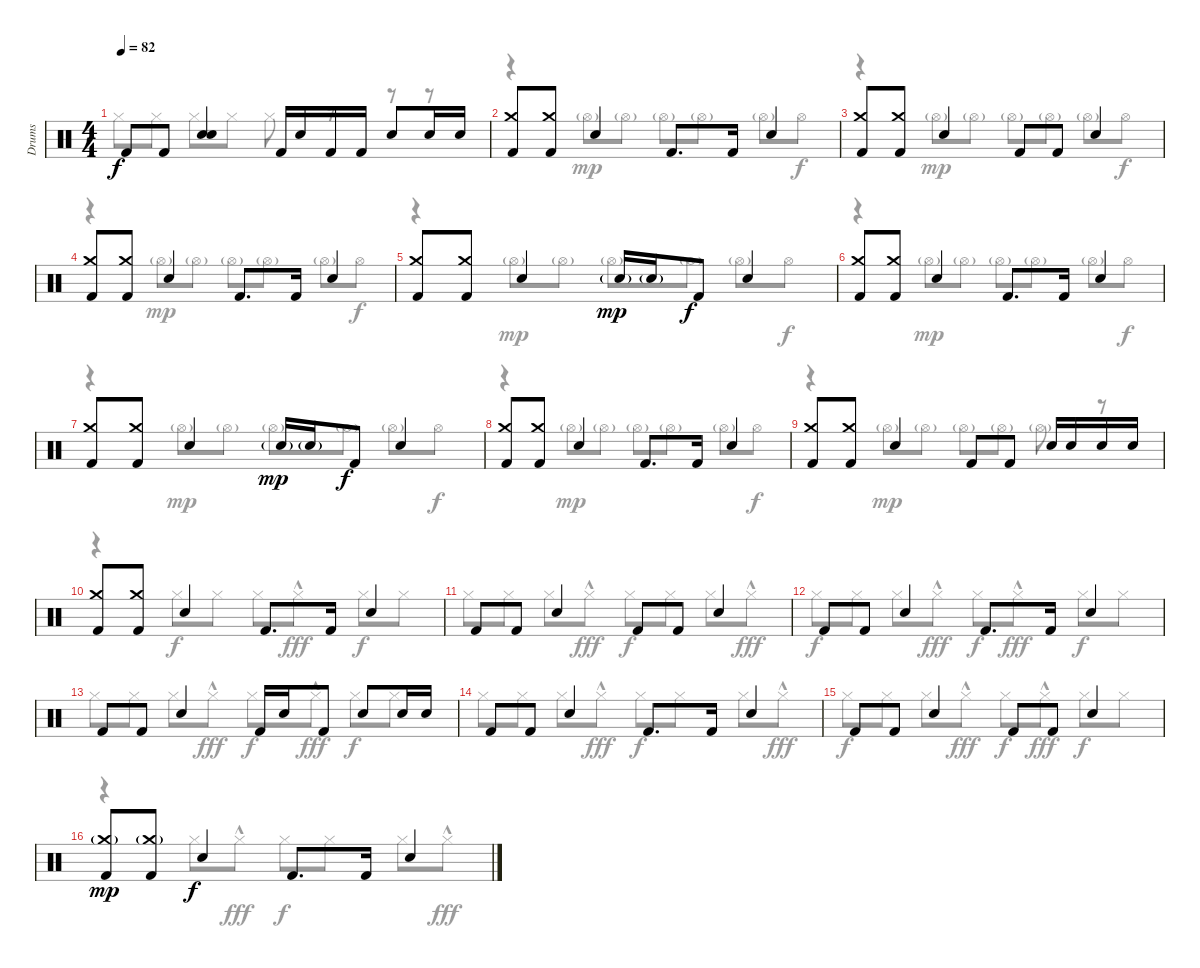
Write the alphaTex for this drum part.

\track ("Drums" "Drums") {instrument percussion}
\staff {score}
\articulation defaults
\voice
\ts (4 4)
\tempo 82
\clef neutral
\ks c "Kick (hit) 2".8{dy f} "Kick (hit) 2".8
("Snare (hit) 2" "Snare (hit) 2").4 "Kick (hit) 2".16 "Snare (hit) 2".16 "Kick (hit) 2".16 "Kick (hit) 2".16 "Snare (hit) 2".8 "Snare (hit) 2".16 "Snare (hit) 2".16 |
("Crash medium (hit)" "Kick (hit) 2").8 ("Crash medium (hit)" "Kick (hit) 2").8 "Snare (hit) 2".4 "Kick (hit) 2".8{d} "Kick (hit) 2".16 "Snare (hit) 2".4 |
("Crash medium (hit)" "Kick (hit) 2").8 ("Crash medium (hit)" "Kick (hit) 2").8 "Snare (hit) 2".4 "Kick (hit) 2".8 "Kick (hit) 2".8 "Snare (hit) 2".4 |
("Crash medium (hit)" "Kick (hit) 2").8 ("Crash medium (hit)" "Kick (hit) 2").8 "Snare (hit) 2".4 "Kick (hit) 2".8{d} "Kick (hit) 2".16 "Snare (hit) 2".4 |
("Crash medium (hit)" "Kick (hit) 2").8 ("Crash medium (hit)" "Kick (hit) 2").8 "Snare (hit) 2".4 "Snare (hit) 2"{g}.16{dy mp} "Snare (hit) 2"{g}.16 "Kick (hit) 2".8{dy f} "Snare (hit) 2".4 |
("Crash medium (hit)" "Kick (hit) 2").8 ("Crash medium (hit)" "Kick (hit) 2").8 "Snare (hit) 2".4 "Kick (hit) 2".8{d} "Kick (hit) 2".16 "Snare (hit) 2".4 |
("Crash medium (hit)" "Kick (hit) 2").8 ("Crash medium (hit)" "Kick (hit) 2").8 "Snare (hit) 2".4 "Snare (hit) 2"{g}.16{dy mp} "Snare (hit) 2"{g}.16 "Kick (hit) 2".8{dy f} "Snare (hit) 2".4 |
("Crash medium (hit)" "Kick (hit) 2").8 ("Crash medium (hit)" "Kick (hit) 2").8 "Snare (hit) 2".4 "Kick (hit) 2".8{d} "Kick (hit) 2".16 "Snare (hit) 2".4 |
("Crash medium (hit)" "Kick (hit) 2").8 ("Crash medium (hit)" "Kick (hit) 2").8 "Snare (hit) 2".4 "Kick (hit) 2".8 "Kick (hit) 2".8 "Snare (hit) 2".16 "Snare (hit) 2".16 "Snare (hit) 2".16 "Snare (hit) 2".16 |
("Crash medium (hit)" "Kick (hit) 2").8 ("Crash medium (hit)" "Kick (hit) 2").8 "Snare (hit) 2".4 "Kick (hit) 2".8{d} "Kick (hit) 2".16 "Snare (hit) 2".4 |
"Kick (hit) 2".8 "Kick (hit) 2".8 "Snare (hit) 2".4 "Kick (hit) 2".8 "Kick (hit) 2".8 "Snare (hit) 2".4 |
"Kick (hit) 2".8 "Kick (hit) 2".8 "Snare (hit) 2".4 "Kick (hit) 2".8{d} "Kick (hit) 2".16 "Snare (hit) 2".4 |
"Kick (hit) 2".8 "Kick (hit) 2".8 "Snare (hit) 2".4 "Kick (hit) 2".16 "Snare (hit) 2".16 "Kick (hit) 2".8 "Snare (hit) 2".8 "Snare (hit) 2".16 "Snare (hit) 2".16 |
"Kick (hit) 2".8 "Kick (hit) 2".8 "Snare (hit) 2".4 "Kick (hit) 2".8{d} "Kick (hit) 2".16 "Snare (hit) 2".4 |
"Kick (hit) 2".8 "Kick (hit) 2".8 "Snare (hit) 2".4 "Kick (hit) 2".8 "Kick (hit) 2".8 "Snare (hit) 2".4 |
("Crash medium (hit)"{g} "Kick (hit) 2").8{dy mp} ("Crash medium (hit)"{g} "Kick (hit) 2").8 "Snare (hit) 2".4{dy f} "Kick (hit) 2".8{d} "Kick (hit) 2".16 "Snare (hit) 2".4
\voice
\clef neutral
\ottava regular
\simile none
\ks c "Hi-Hat (closed)".8{dy f} "Hi-Hat (closed)".8 "Hi-Hat (closed)".8 "Hi-Hat (closed)".8 "Hi-Hat (closed)".8
r.8 r.8 r.8 |
r.4 "Hi-Hat (open)"{g}.8{dy mp} "Hi-Hat (open)"{g}.8 "Hi-Hat (open)"{g}.8 "Hi-Hat (open)"{g}.8 "Hi-Hat (open)"{g}.8 "Hi-Hat (open)".8{dy f} |
r.4 "Hi-Hat (open)"{g}.8{dy mp} "Hi-Hat (open)"{g}.8 "Hi-Hat (open)"{g}.8 "Hi-Hat (open)"{g}.8 "Hi-Hat (open)"{g}.8 "Hi-Hat (open)".8{dy f} |
r.4 "Hi-Hat (open)"{g}.8{dy mp} "Hi-Hat (open)"{g}.8 "Hi-Hat (open)"{g}.8 "Hi-Hat (open)"{g}.8 "Hi-Hat (open)"{g}.8 "Hi-Hat (open)".8{dy f} |
r.4 "Hi-Hat (open)"{g}.8{dy mp} "Hi-Hat (open)"{g}.8 "Hi-Hat (open)"{g}.8 "Hi-Hat (open)"{g}.8 "Hi-Hat (open)"{g}.8 "Hi-Hat (open)".8{dy f} |
r.4 "Hi-Hat (open)"{g}.8{dy mp} "Hi-Hat (open)"{g}.8 "Hi-Hat (open)"{g}.8 "Hi-Hat (open)"{g}.8 "Hi-Hat (open)"{g}.8 "Hi-Hat (open)".8{dy f} |
r.4 "Hi-Hat (open)"{g}.8{dy mp} "Hi-Hat (open)"{g}.8 "Hi-Hat (open)"{g}.8 "Hi-Hat (open)"{g}.8 "Hi-Hat (open)"{g}.8 "Hi-Hat (open)".8{dy f} |
r.4 "Hi-Hat (open)"{g}.8{dy mp} "Hi-Hat (open)"{g}.8 "Hi-Hat (open)"{g}.8 "Hi-Hat (open)"{g}.8 "Hi-Hat (open)"{g}.8 "Hi-Hat (open)".8{dy f} |
r.4 "Hi-Hat (open)"{g}.8{dy mp} "Hi-Hat (open)"{g}.8 "Hi-Hat (open)"{g}.8 "Hi-Hat (open)"{g}.8 "Hi-Hat (open)"{g}.8 r.8 |
r.4 "Hi-Hat (closed)".8{dy f} "Hi-Hat (closed)".8 "Hi-Hat (closed)".8 "Hi-Hat (closed)"{hac}.8{dy fff} "Hi-Hat (closed)".8{dy f} "Hi-Hat (closed)".8 |
"Hi-Hat (closed)".8 "Hi-Hat (closed)".8 "Hi-Hat (closed)".8 "Hi-Hat (closed)"{hac}.8{dy fff} "Hi-Hat (closed)".8{dy f} "Hi-Hat (closed)".8 "Hi-Hat (closed)".8 "Hi-Hat (closed)"{hac}.8{dy fff} |
"Hi-Hat (closed)".8{dy f} "Hi-Hat (closed)".8 "Hi-Hat (closed)".8 "Hi-Hat (closed)"{hac}.8{dy fff} "Hi-Hat (closed)".8{dy f} "Hi-Hat (closed)"{hac}.8{dy fff} "Hi-Hat (closed)".8{dy f} "Hi-Hat (closed)".8 |
"Hi-Hat (closed)".8 "Hi-Hat (closed)".8 "Hi-Hat (closed)".8 "Hi-Hat (closed)"{hac}.8{dy fff} "Hi-Hat (closed)".8{dy f} "Hi-Hat (closed)"{hac}.8{dy fff} "Hi-Hat (closed)".8{dy f} "Hi-Hat (closed)".8 |
"Hi-Hat (closed)".8 "Hi-Hat (closed)".8 "Hi-Hat (closed)".8 "Hi-Hat (closed)"{hac}.8{dy fff} "Hi-Hat (closed)".8{dy f} "Hi-Hat (closed)".8 "Hi-Hat (closed)".8 "Hi-Hat (closed)"{hac}.8{dy fff} |
"Hi-Hat (closed)".8{dy f} "Hi-Hat (closed)".8 "Hi-Hat (closed)".8 "Hi-Hat (closed)"{hac}.8{dy fff} "Hi-Hat (closed)".8{dy f} "Hi-Hat (closed)"{hac}.8{dy fff} "Hi-Hat (closed)".8{dy f} "Hi-Hat (closed)".8 |
r.4 "Hi-Hat (closed)".8 "Hi-Hat (closed)"{hac}.8{dy fff} "Hi-Hat (closed)".8{dy f} "Hi-Hat (closed)".8 "Hi-Hat (closed)".8 "Hi-Hat (closed)"{hac}.8{dy fff}
